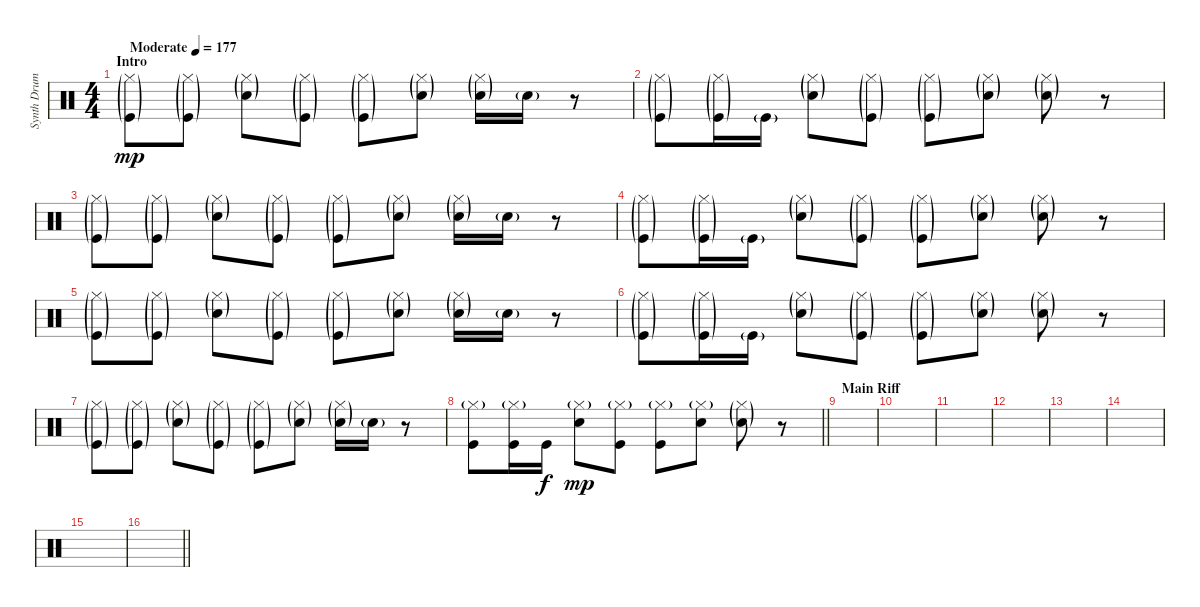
\track ("Synth Drums" "Synth Drum") {instrument percussion}
\staff {score}
\articulation defaults
\ts (4 4)
\section ("" "Intro")
\tempo (177 "Moderate")
\clef neutral
\ks c
("Hi-Hat (closed)"{g} "Kick (hit)"{g}).8{dy mp} ("Hi-Hat (closed)"{g} "Kick (hit)"{g}).8 ("Hi-Hat (closed)"{g} "Snare (hit) 2"{g}).8 ("Hi-Hat (closed)"{g} "Kick (hit)"{g}).8 ("Hi-Hat (closed)"{g} "Kick (hit)"{g}).8 ("Hi-Hat (closed)"{g} "Snare (hit) 2"{g}).8 ("Hi-Hat (closed)"{g} "Snare (hit) 2"{g}).16 "Snare (hit) 2"{g}.16 r.8 |
("Hi-Hat (closed)"{g} "Kick (hit)"{g}).8 ("Hi-Hat (closed)"{g} "Kick (hit)"{g}).16 "Kick (hit)"{g}.16 ("Hi-Hat (closed)"{g} "Snare (hit) 2"{g}).8 ("Hi-Hat (closed)"{g} "Kick (hit)"{g}).8 ("Hi-Hat (closed)"{g} "Kick (hit)"{g}).8 ("Hi-Hat (closed)"{g} "Snare (hit) 2"{g}).8 ("Hi-Hat (closed)"{g} "Snare (hit) 2"{g}).8 r.8 |
("Hi-Hat (closed)"{g} "Kick (hit)"{g}).8 ("Hi-Hat (closed)"{g} "Kick (hit)"{g}).8 ("Hi-Hat (closed)"{g} "Snare (hit) 2"{g}).8 ("Hi-Hat (closed)"{g} "Kick (hit)"{g}).8 ("Hi-Hat (closed)"{g} "Kick (hit)"{g}).8 ("Hi-Hat (closed)"{g} "Snare (hit) 2"{g}).8 ("Hi-Hat (closed)"{g} "Snare (hit) 2"{g}).16 "Snare (hit) 2"{g}.16 r.8 |
("Hi-Hat (closed)"{g} "Kick (hit)"{g}).8 ("Hi-Hat (closed)"{g} "Kick (hit)"{g}).16 "Kick (hit)"{g}.16 ("Hi-Hat (closed)"{g} "Snare (hit) 2"{g}).8 ("Hi-Hat (closed)"{g} "Kick (hit)"{g}).8 ("Hi-Hat (closed)"{g} "Kick (hit)"{g}).8 ("Hi-Hat (closed)"{g} "Snare (hit) 2"{g}).8 ("Hi-Hat (closed)"{g} "Snare (hit) 2"{g}).8 r.8 |
("Hi-Hat (closed)"{g} "Kick (hit)"{g}).8 ("Hi-Hat (closed)"{g} "Kick (hit)"{g}).8 ("Hi-Hat (closed)"{g} "Snare (hit) 2"{g}).8 ("Hi-Hat (closed)"{g} "Kick (hit)"{g}).8 ("Hi-Hat (closed)"{g} "Kick (hit)"{g}).8 ("Hi-Hat (closed)"{g} "Snare (hit) 2"{g}).8 ("Hi-Hat (closed)"{g} "Snare (hit) 2"{g}).16 "Snare (hit) 2"{g}.16 r.8 |
("Hi-Hat (closed)"{g} "Kick (hit)"{g}).8 ("Hi-Hat (closed)"{g} "Kick (hit)"{g}).16 "Kick (hit)"{g}.16 ("Hi-Hat (closed)"{g} "Snare (hit) 2"{g}).8 ("Hi-Hat (closed)"{g} "Kick (hit)"{g}).8 ("Hi-Hat (closed)"{g} "Kick (hit)"{g}).8 ("Hi-Hat (closed)"{g} "Snare (hit) 2"{g}).8 ("Hi-Hat (closed)"{g} "Snare (hit) 2"{g}).8 r.8 |
("Hi-Hat (closed)"{g} "Kick (hit)"{g}).8 ("Hi-Hat (closed)"{g} "Kick (hit)"{g}).8 ("Hi-Hat (closed)"{g} "Snare (hit) 2"{g}).8 ("Hi-Hat (closed)"{g} "Kick (hit)"{g}).8 ("Hi-Hat (closed)"{g} "Kick (hit)"{g}).8 ("Hi-Hat (closed)"{g} "Snare (hit) 2"{g}).8 ("Hi-Hat (closed)"{g} "Snare (hit) 2"{g}).16 "Snare (hit) 2"{g}.16 r.8 |
\barLineRight lightlight
("Hi-Hat (closed)"{g} "Kick (hit)").8 ("Hi-Hat (closed)"{g} "Kick (hit)").16 "Kick (hit)".16{dy f} ("Hi-Hat (closed)"{g} "Snare (hit) 2").8{dy mp} ("Hi-Hat (closed)"{g} "Kick (hit)").8 ("Hi-Hat (closed)"{g} "Kick (hit)").8 ("Hi-Hat (closed)"{g} "Snare (hit) 2").8 ("Hi-Hat (closed)"{g} "Snare (hit) 2"{g}).8 r.8 |
\section ("" "Main Riff")
|
|
|
|
|
|
|
\barLineRight lightlight
